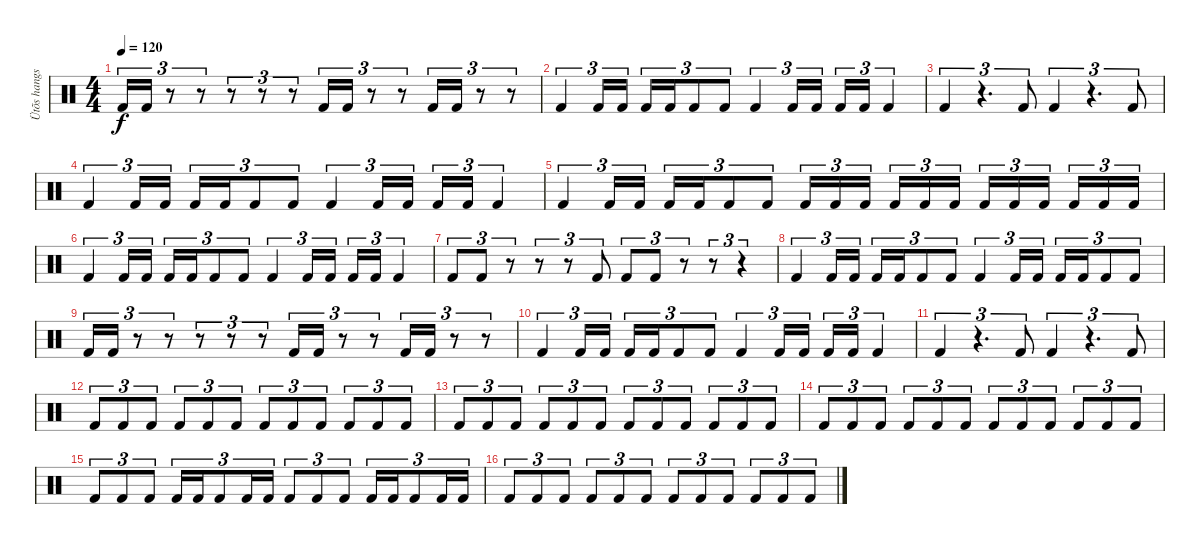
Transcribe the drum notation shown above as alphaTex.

\track ("Ütõs hangszer" "Ütõs hangs") {instrument percussion}
\staff {score}
\articulation defaults
\ts (4 4)
\tempo 120
\clef neutral
\ks c "Kick (hit) 2".16{tu (3 2) dy f} "Kick (hit) 2".16{tu (3 2)}
r.8{tu (3 2)} r.8{tu (3 2)} r.8{tu (3 2)} r.8{tu (3 2)} r.8{tu (3 2)} "Kick (hit) 2".16{tu (3 2)} "Kick (hit) 2".16{tu (3 2)} r.8{tu (3 2)} r.8{tu (3 2)} "Kick (hit) 2".16{tu (3 2)} "Kick (hit) 2".16{tu (3 2)} r.8{tu (3 2)} r.8{tu (3 2)} |
"Kick (hit) 2".4{tu (3 2)} "Kick (hit) 2".16{tu (3 2)} "Kick (hit) 2".16{tu (3 2)} "Kick (hit) 2".16{tu (3 2)} "Kick (hit) 2".16{tu (3 2)} "Kick (hit) 2".8{tu (3 2)} "Kick (hit) 2".8{tu (3 2)} "Kick (hit) 2".4{tu (3 2)} "Kick (hit) 2".16{tu (3 2)} "Kick (hit) 2".16{tu (3 2)} "Kick (hit) 2".16{tu (3 2)} "Kick (hit) 2".16{tu (3 2)} "Kick (hit) 2".4{tu (3 2)} |
"Kick (hit) 2".4{tu (3 2)} r.4{d tu (3 2)} "Kick (hit) 2".8{tu (3 2)} "Kick (hit) 2".4{tu (3 2)} r.4{d tu (3 2)} "Kick (hit) 2".8{tu (3 2)} |
"Kick (hit) 2".4{tu (3 2)} "Kick (hit) 2".16{tu (3 2)} "Kick (hit) 2".16{tu (3 2)} "Kick (hit) 2".16{tu (3 2)} "Kick (hit) 2".16{tu (3 2)} "Kick (hit) 2".8{tu (3 2)} "Kick (hit) 2".8{tu (3 2)} "Kick (hit) 2".4{tu (3 2)} "Kick (hit) 2".16{tu (3 2)} "Kick (hit) 2".16{tu (3 2)} "Kick (hit) 2".16{tu (3 2)} "Kick (hit) 2".16{tu (3 2)} "Kick (hit) 2".4{tu (3 2)} |
"Kick (hit) 2".4{tu (3 2)} "Kick (hit) 2".16{tu (3 2)} "Kick (hit) 2".16{tu (3 2)} "Kick (hit) 2".16{tu (3 2)} "Kick (hit) 2".16{tu (3 2)} "Kick (hit) 2".8{tu (3 2)} "Kick (hit) 2".8{tu (3 2)} "Kick (hit) 2".16{tu (3 2)} "Kick (hit) 2".16{tu (3 2)} "Kick (hit) 2".16{tu (3 2)} "Kick (hit) 2".16{tu (3 2)} "Kick (hit) 2".16{tu (3 2)} "Kick (hit) 2".16{tu (3 2)} "Kick (hit) 2".16{tu (3 2)} "Kick (hit) 2".16{tu (3 2)} "Kick (hit) 2".16{tu (3 2)} "Kick (hit) 2".16{tu (3 2)} "Kick (hit) 2".16{tu (3 2)} "Kick (hit) 2".16{tu (3 2)} |
"Kick (hit) 2".4{tu (3 2)} "Kick (hit) 2".16{tu (3 2)} "Kick (hit) 2".16{tu (3 2)} "Kick (hit) 2".16{tu (3 2)} "Kick (hit) 2".16{tu (3 2)} "Kick (hit) 2".8{tu (3 2)} "Kick (hit) 2".8{tu (3 2)} "Kick (hit) 2".4{tu (3 2)} "Kick (hit) 2".16{tu (3 2)} "Kick (hit) 2".16{tu (3 2)} "Kick (hit) 2".16{tu (3 2)} "Kick (hit) 2".16{tu (3 2)} "Kick (hit) 2".4{tu (3 2)} |
"Kick (hit) 2".8{tu (3 2)} "Kick (hit) 2".8{tu (3 2)} r.8{tu (3 2)} r.8{tu (3 2)} r.8{tu (3 2)} "Kick (hit) 2".8{tu (3 2)} "Kick (hit) 2".8{tu (3 2)} "Kick (hit) 2".8{tu (3 2)} r.8{tu (3 2)} r.8{tu (3 2)} r.4{tu (3 2)} |
"Kick (hit) 2".4{tu (3 2)} "Kick (hit) 2".16{tu (3 2)} "Kick (hit) 2".16{tu (3 2)} "Kick (hit) 2".16{tu (3 2)} "Kick (hit) 2".16{tu (3 2)} "Kick (hit) 2".8{tu (3 2)} "Kick (hit) 2".8{tu (3 2)} "Kick (hit) 2".4{tu (3 2)} "Kick (hit) 2".16{tu (3 2)} "Kick (hit) 2".16{tu (3 2)} "Kick (hit) 2".16{tu (3 2)} "Kick (hit) 2".16{tu (3 2)} "Kick (hit) 2".8{tu (3 2)} "Kick (hit) 2".8{tu (3 2)} |
"Kick (hit) 2".16{tu (3 2)} "Kick (hit) 2".16{tu (3 2)} r.8{tu (3 2)} r.8{tu (3 2)} r.8{tu (3 2)} r.8{tu (3 2)} r.8{tu (3 2)} "Kick (hit) 2".16{tu (3 2)} "Kick (hit) 2".16{tu (3 2)} r.8{tu (3 2)} r.8{tu (3 2)} "Kick (hit) 2".16{tu (3 2)} "Kick (hit) 2".16{tu (3 2)} r.8{tu (3 2)} r.8{tu (3 2)} |
"Kick (hit) 2".4{tu (3 2)} "Kick (hit) 2".16{tu (3 2)} "Kick (hit) 2".16{tu (3 2)} "Kick (hit) 2".16{tu (3 2)} "Kick (hit) 2".16{tu (3 2)} "Kick (hit) 2".8{tu (3 2)} "Kick (hit) 2".8{tu (3 2)} "Kick (hit) 2".4{tu (3 2)} "Kick (hit) 2".16{tu (3 2)} "Kick (hit) 2".16{tu (3 2)} "Kick (hit) 2".16{tu (3 2)} "Kick (hit) 2".16{tu (3 2)} "Kick (hit) 2".4{tu (3 2)} |
"Kick (hit) 2".4{tu (3 2)} r.4{d tu (3 2)} "Kick (hit) 2".8{tu (3 2)} "Kick (hit) 2".4{tu (3 2)} r.4{d tu (3 2)} "Kick (hit) 2".8{tu (3 2)} |
"Kick (hit) 2".8{tu (3 2)} "Kick (hit) 2".8{tu (3 2)} "Kick (hit) 2".8{tu (3 2)} "Kick (hit) 2".8{tu (3 2)} "Kick (hit) 2".8{tu (3 2)} "Kick (hit) 2".8{tu (3 2)} "Kick (hit) 2".8{tu (3 2)} "Kick (hit) 2".8{tu (3 2)} "Kick (hit) 2".8{tu (3 2)} "Kick (hit) 2".8{tu (3 2)} "Kick (hit) 2".8{tu (3 2)} "Kick (hit) 2".8{tu (3 2)} |
"Kick (hit) 2".8{tu (3 2)} "Kick (hit) 2".8{tu (3 2)} "Kick (hit) 2".8{tu (3 2)} "Kick (hit) 2".8{tu (3 2)} "Kick (hit) 2".8{tu (3 2)} "Kick (hit) 2".8{tu (3 2)} "Kick (hit) 2".8{tu (3 2)} "Kick (hit) 2".8{tu (3 2)} "Kick (hit) 2".8{tu (3 2)} "Kick (hit) 2".8{tu (3 2)} "Kick (hit) 2".8{tu (3 2)} "Kick (hit) 2".8{tu (3 2)} |
"Kick (hit) 2".8{tu (3 2)} "Kick (hit) 2".8{tu (3 2)} "Kick (hit) 2".8{tu (3 2)} "Kick (hit) 2".8{tu (3 2)} "Kick (hit) 2".8{tu (3 2)} "Kick (hit) 2".8{tu (3 2)} "Kick (hit) 2".8{tu (3 2)} "Kick (hit) 2".8{tu (3 2)} "Kick (hit) 2".8{tu (3 2)} "Kick (hit) 2".8{tu (3 2)} "Kick (hit) 2".8{tu (3 2)} "Kick (hit) 2".8{tu (3 2)} |
"Kick (hit) 2".8{tu (3 2)} "Kick (hit) 2".8{tu (3 2)} "Kick (hit) 2".8{tu (3 2)} "Kick (hit) 2".16{tu (3 2)} "Kick (hit) 2".16{tu (3 2)} "Kick (hit) 2".8{tu (3 2)} "Kick (hit) 2".16{tu (3 2)} "Kick (hit) 2".16{tu (3 2)} "Kick (hit) 2".8{tu (3 2)} "Kick (hit) 2".8{tu (3 2)} "Kick (hit) 2".8{tu (3 2)} "Kick (hit) 2".16{tu (3 2)} "Kick (hit) 2".16{tu (3 2)} "Kick (hit) 2".8{tu (3 2)} "Kick (hit) 2".16{tu (3 2)} "Kick (hit) 2".16{tu (3 2)} |
"Kick (hit) 2".8{tu (3 2)} "Kick (hit) 2".8{tu (3 2)} "Kick (hit) 2".8{tu (3 2)} "Kick (hit) 2".8{tu (3 2)} "Kick (hit) 2".8{tu (3 2)} "Kick (hit) 2".8{tu (3 2)} "Kick (hit) 2".8{tu (3 2)} "Kick (hit) 2".8{tu (3 2)} "Kick (hit) 2".8{tu (3 2)} "Kick (hit) 2".8{tu (3 2)} "Kick (hit) 2".8{tu (3 2)} "Kick (hit) 2".8{tu (3 2)}
